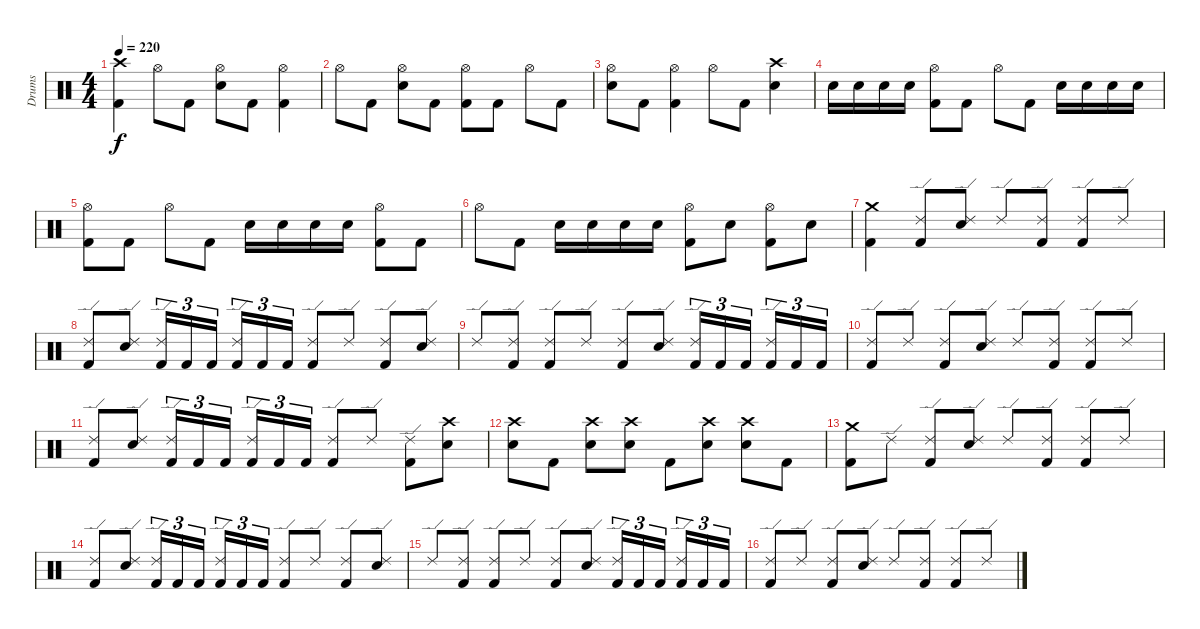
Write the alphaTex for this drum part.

\track ("Drums" "Drums") {instrument percussion}
\staff {score}
\articulation defaults
\ts (4 4)
\tempo 220
\clef neutral
\ks c
("Crash high (hit)" "Kick (hit) 2").4{dy f} "Hi-Hat (open)".8 "Kick (hit) 2".8 ("Hi-Hat (open)" "Electric Snare (hit)").8 "Kick (hit) 2".8 ("Hi-Hat (open)" "Kick (hit) 2").4 |
"Hi-Hat (open)".8 "Kick (hit) 2".8 ("Hi-Hat (open)" "Electric Snare (hit)").8 "Kick (hit) 2".8 ("Hi-Hat (open)" "Kick (hit) 2").8 "Kick (hit) 2".8 "Hi-Hat (open)".8 "Kick (hit) 2".8 |
("Hi-Hat (open)" "Electric Snare (hit)").8 "Kick (hit) 2".8 ("Hi-Hat (open)" "Kick (hit) 2").4 "Hi-Hat (open)".8 "Kick (hit) 2".8 ("Crash high (hit)" "Electric Snare (hit)").4 |
"Electric Snare (hit)".16 "Electric Snare (hit)".16 "Electric Snare (hit)".16 "Electric Snare (hit)".16 ("Hi-Hat (open)" "Kick (hit) 2").8 "Kick (hit) 2".8 "Hi-Hat (open)".8 "Kick (hit) 2".8 "Electric Snare (hit)".16 "Electric Snare (hit)".16 "Electric Snare (hit)".16 "Electric Snare (hit)".16 |
("Hi-Hat (open)" "Kick (hit) 2").8 "Kick (hit) 2".8 "Hi-Hat (open)".8 "Kick (hit) 2".8 "Electric Snare (hit)".16 "Electric Snare (hit)".16 "Electric Snare (hit)".16 "Electric Snare (hit)".16 ("Hi-Hat (open)" "Kick (hit) 2").8 "Kick (hit) 2".8 |
"Hi-Hat (open)".8 "Kick (hit) 2".8 "Electric Snare (hit)".16 "Electric Snare (hit)".16 "Electric Snare (hit)".16 "Electric Snare (hit)".16 ("Hi-Hat (open)" "Kick (hit) 2").8 "Electric Snare (hit)".8 ("Hi-Hat (open)" "Kick (hit) 2").8 "Electric Snare (hit)".8 |
("Crash medium (hit)" "Kick (hit) 2").4 ("Ride (edge) 2" "Kick (hit) 2").8 ("Ride (edge) 2" "Electric Snare (hit)").8 "Ride (edge) 2".8 ("Ride (edge) 2" "Kick (hit) 2").8 ("Ride (edge) 2" "Kick (hit) 2").8 "Ride (edge) 2".8 |
("Ride (edge) 2" "Kick (hit) 2").8 ("Ride (edge) 2" "Electric Snare (hit)").8 ("Ride (edge) 2" "Kick (hit) 2").16{tu (3 2)} "Kick (hit) 2".16{tu (3 2)} "Kick (hit) 2".16{tu (3 2)} ("Ride (edge) 2" "Kick (hit) 2").16{tu (3 2)} "Kick (hit) 2".16{tu (3 2)} "Kick (hit) 2".16{tu (3 2)} ("Ride (edge) 2" "Kick (hit) 2").8 "Ride (edge) 2".8 ("Ride (edge) 2" "Kick (hit) 2").8 ("Ride (edge) 2" "Electric Snare (hit)").8 |
"Ride (edge) 2".8 ("Ride (edge) 2" "Kick (hit) 2").8 ("Ride (edge) 2" "Kick (hit) 2").8 "Ride (edge) 2".8 ("Ride (edge) 2" "Kick (hit) 2").8 ("Ride (edge) 2" "Electric Snare (hit)").8 ("Ride (edge) 2" "Kick (hit) 2").16{tu (3 2)} "Kick (hit) 2".16{tu (3 2)} "Kick (hit) 2".16{tu (3 2)} ("Ride (edge) 2" "Kick (hit) 2").16{tu (3 2)} "Kick (hit) 2".16{tu (3 2)} "Kick (hit) 2".16{tu (3 2)} |
("Ride (edge) 2" "Kick (hit) 2").8 "Ride (edge) 2".8 ("Ride (edge) 2" "Kick (hit) 2").8 ("Ride (edge) 2" "Electric Snare (hit)").8 "Ride (edge) 2".8 ("Ride (edge) 2" "Kick (hit) 2").8 ("Ride (edge) 2" "Kick (hit) 2").8 "Ride (edge) 2".8 |
("Ride (edge) 2" "Kick (hit) 2").8 ("Ride (edge) 2" "Electric Snare (hit)").8 ("Ride (edge) 2" "Kick (hit) 2").16{tu (3 2)} "Kick (hit) 2".16{tu (3 2)} "Kick (hit) 2".16{tu (3 2)} ("Ride (edge) 2" "Kick (hit) 2").16{tu (3 2)} "Kick (hit) 2".16{tu (3 2)} "Kick (hit) 2".16{tu (3 2)} ("Ride (edge) 2" "Kick (hit) 2").8 "Ride (edge) 2".8 ("Ride (edge) 2" "Kick (hit) 2").8 ("Crash high (hit)" "Electric Snare (hit)").8 |
("Crash high (hit)" "Electric Snare (hit)").8 "Kick (hit) 2".8 ("Crash high (hit)" "Electric Snare (hit)").8 ("Crash high (hit)" "Electric Snare (hit)").8 "Kick (hit) 2".8 ("Crash high (hit)" "Electric Snare (hit)").8 ("Crash high (hit)" "Electric Snare (hit)").8 "Kick (hit) 2".8 |
("Crash medium (hit)" "Kick (hit) 2").8 "Ride (edge) 2".8 ("Ride (edge) 2" "Kick (hit) 2").8 ("Ride (edge) 2" "Electric Snare (hit)").8 "Ride (edge) 2".8 ("Ride (edge) 2" "Kick (hit) 2").8 ("Ride (edge) 2" "Kick (hit) 2").8 "Ride (edge) 2".8 |
("Ride (edge) 2" "Kick (hit) 2").8 ("Ride (edge) 2" "Electric Snare (hit)").8 ("Ride (edge) 2" "Kick (hit) 2").16{tu (3 2)} "Kick (hit) 2".16{tu (3 2)} "Kick (hit) 2".16{tu (3 2)} ("Ride (edge) 2" "Kick (hit) 2").16{tu (3 2)} "Kick (hit) 2".16{tu (3 2)} "Kick (hit) 2".16{tu (3 2)} ("Ride (edge) 2" "Kick (hit) 2").8 "Ride (edge) 2".8 ("Ride (edge) 2" "Kick (hit) 2").8 ("Ride (edge) 2" "Electric Snare (hit)").8 |
"Ride (edge) 2".8 ("Ride (edge) 2" "Kick (hit) 2").8 ("Ride (edge) 2" "Kick (hit) 2").8 "Ride (edge) 2".8 ("Ride (edge) 2" "Kick (hit) 2").8 ("Ride (edge) 2" "Electric Snare (hit)").8 ("Ride (edge) 2" "Kick (hit) 2").16{tu (3 2)} "Kick (hit) 2".16{tu (3 2)} "Kick (hit) 2".16{tu (3 2)} ("Ride (edge) 2" "Kick (hit) 2").16{tu (3 2)} "Kick (hit) 2".16{tu (3 2)} "Kick (hit) 2".16{tu (3 2)} |
("Ride (edge) 2" "Kick (hit) 2").8 "Ride (edge) 2".8 ("Ride (edge) 2" "Kick (hit) 2").8 ("Ride (edge) 2" "Electric Snare (hit)").8 "Ride (edge) 2".8 ("Ride (edge) 2" "Kick (hit) 2").8 ("Ride (edge) 2" "Kick (hit) 2").8 "Ride (edge) 2".8
